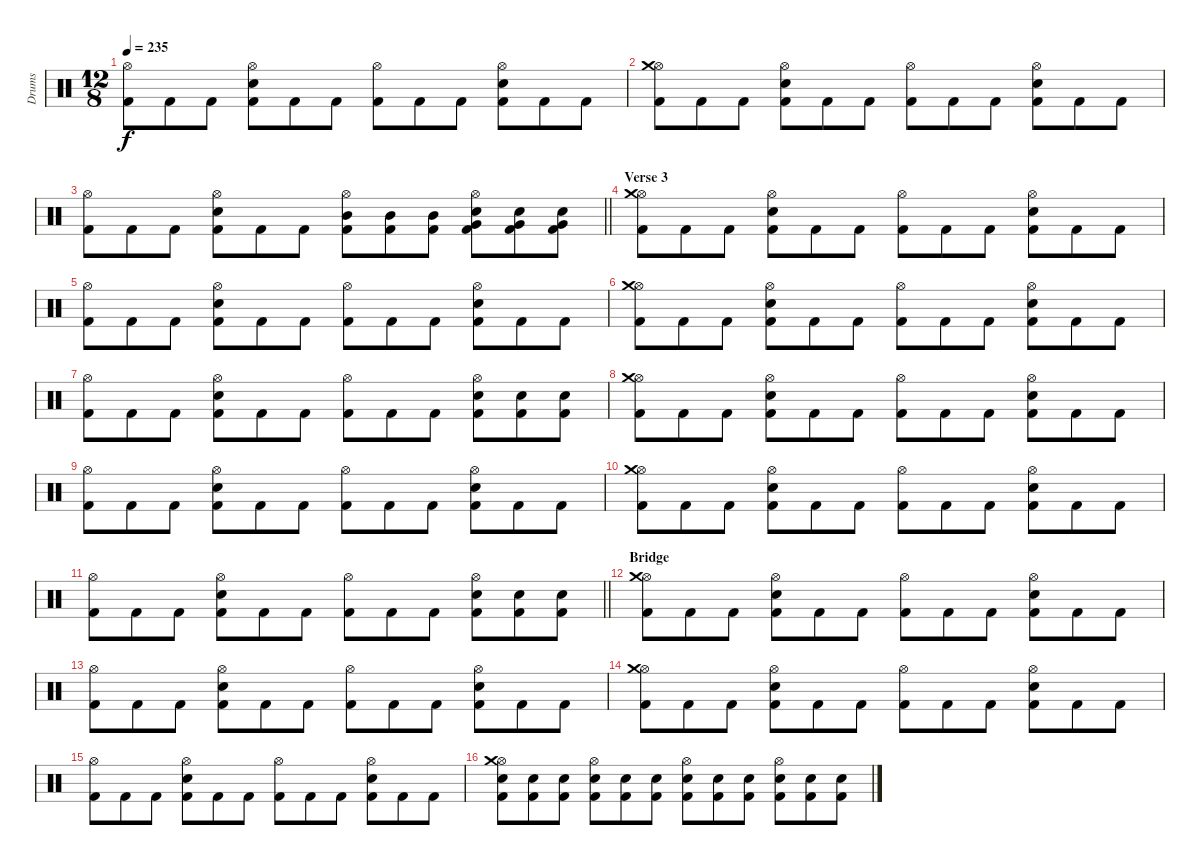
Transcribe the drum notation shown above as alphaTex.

\track ("Drums" "Drums") {instrument percussion}
\staff {score}
\articulation defaults
\ts (12 8)
\tempo 235
\clef neutral
\ks c
("Hi-Hat (open)" "Kick (hit) 2").8{dy f} "Kick (hit) 2".8 "Kick (hit) 2".8 ("Snare (hit) 2" "Kick (hit) 2" "Hi-Hat (open)").8 "Kick (hit) 2".8 "Kick (hit) 2".8 ("Hi-Hat (open)" "Kick (hit) 2").8 "Kick (hit) 2".8 "Kick (hit) 2".8 ("Hi-Hat (open)" "Kick (hit) 2" "Snare (hit) 2").8 "Kick (hit) 2".8 "Kick (hit) 2".8 |
("Hi-Hat (open)" "Kick (hit) 2" "Crash medium (hit)").8 "Kick (hit) 2".8 "Kick (hit) 2".8 ("Kick (hit) 2" "Snare (hit) 2" "Hi-Hat (open)").8 "Kick (hit) 2".8 "Kick (hit) 2".8 ("Kick (hit) 2" "Hi-Hat (open)").8 "Kick (hit) 2".8 "Kick (hit) 2".8 ("Snare (hit) 2" "Kick (hit) 2" "Hi-Hat (open)").8 "Kick (hit) 2".8 "Kick (hit) 2".8 |
\barLineRight lightlight
("Kick (hit) 2" "Hi-Hat (open)").8 "Kick (hit) 2".8 "Kick (hit) 2".8 ("Hi-Hat (open)" "Kick (hit) 2" "Snare (hit) 2").8 "Kick (hit) 2".8 "Kick (hit) 2".8 ("Kick (hit) 2" "Hi-Hat (open)" "Mid Tom (hit)").8 ("Kick (hit) 2" "Mid Tom (hit)").8 ("Kick (hit) 2" "Mid Tom (hit)").8 ("Kick (hit) 2" "Hi-Hat (open)" "Very Low Tom (hit)" "Snare (hit) 2").8 ("Kick (hit) 2" "Very Low Tom (hit)" "Snare (hit) 2").8 ("Kick (hit) 2" "Very Low Tom (hit)" "Snare (hit) 2").8 |
\section ("" "Verse 3")
("Kick (hit) 2" "Hi-Hat (open)" "Crash medium (hit)").8 "Kick (hit) 2".8 "Kick (hit) 2".8 ("Snare (hit) 2" "Hi-Hat (open)" "Kick (hit) 2").8 "Kick (hit) 2".8 "Kick (hit) 2".8 ("Hi-Hat (open)" "Kick (hit) 2").8 "Kick (hit) 2".8 "Kick (hit) 2".8 ("Kick (hit) 2" "Snare (hit) 2" "Hi-Hat (open)").8 "Kick (hit) 2".8 "Kick (hit) 2".8 |
("Hi-Hat (open)" "Kick (hit) 2").8 "Kick (hit) 2".8 "Kick (hit) 2".8 ("Snare (hit) 2" "Kick (hit) 2" "Hi-Hat (open)").8 "Kick (hit) 2".8 "Kick (hit) 2".8 ("Hi-Hat (open)" "Kick (hit) 2").8 "Kick (hit) 2".8 "Kick (hit) 2".8 ("Hi-Hat (open)" "Kick (hit) 2" "Snare (hit) 2").8 "Kick (hit) 2".8 "Kick (hit) 2".8 |
("Hi-Hat (open)" "Kick (hit) 2" "Crash medium (hit)").8 "Kick (hit) 2".8 "Kick (hit) 2".8 ("Kick (hit) 2" "Snare (hit) 2" "Hi-Hat (open)").8 "Kick (hit) 2".8 "Kick (hit) 2".8 ("Kick (hit) 2" "Hi-Hat (open)").8 "Kick (hit) 2".8 "Kick (hit) 2".8 ("Snare (hit) 2" "Kick (hit) 2" "Hi-Hat (open)").8 "Kick (hit) 2".8 "Kick (hit) 2".8 |
("Kick (hit) 2" "Hi-Hat (open)").8 "Kick (hit) 2".8 "Kick (hit) 2".8 ("Hi-Hat (open)" "Kick (hit) 2" "Snare (hit) 2").8 "Kick (hit) 2".8 "Kick (hit) 2".8 ("Kick (hit) 2" "Hi-Hat (open)").8 "Kick (hit) 2".8 "Kick (hit) 2".8 ("Kick (hit) 2" "Hi-Hat (open)" "Snare (hit) 2").8 ("Kick (hit) 2" "Snare (hit) 2").8 ("Kick (hit) 2" "Snare (hit) 2").8 |
("Kick (hit) 2" "Hi-Hat (open)" "Crash medium (hit)").8 "Kick (hit) 2".8 "Kick (hit) 2".8 ("Snare (hit) 2" "Hi-Hat (open)" "Kick (hit) 2").8 "Kick (hit) 2".8 "Kick (hit) 2".8 ("Hi-Hat (open)" "Kick (hit) 2").8 "Kick (hit) 2".8 "Kick (hit) 2".8 ("Kick (hit) 2" "Snare (hit) 2" "Hi-Hat (open)").8 "Kick (hit) 2".8 "Kick (hit) 2".8 |
("Hi-Hat (open)" "Kick (hit) 2").8 "Kick (hit) 2".8 "Kick (hit) 2".8 ("Snare (hit) 2" "Kick (hit) 2" "Hi-Hat (open)").8 "Kick (hit) 2".8 "Kick (hit) 2".8 ("Hi-Hat (open)" "Kick (hit) 2").8 "Kick (hit) 2".8 "Kick (hit) 2".8 ("Hi-Hat (open)" "Kick (hit) 2" "Snare (hit) 2").8 "Kick (hit) 2".8 "Kick (hit) 2".8 |
("Hi-Hat (open)" "Kick (hit) 2" "Crash medium (hit)").8 "Kick (hit) 2".8 "Kick (hit) 2".8 ("Kick (hit) 2" "Snare (hit) 2" "Hi-Hat (open)").8 "Kick (hit) 2".8 "Kick (hit) 2".8 ("Kick (hit) 2" "Hi-Hat (open)").8 "Kick (hit) 2".8 "Kick (hit) 2".8 ("Snare (hit) 2" "Kick (hit) 2" "Hi-Hat (open)").8 "Kick (hit) 2".8 "Kick (hit) 2".8 |
\barLineRight lightlight
("Kick (hit) 2" "Hi-Hat (open)").8 "Kick (hit) 2".8 "Kick (hit) 2".8 ("Hi-Hat (open)" "Kick (hit) 2" "Snare (hit) 2").8 "Kick (hit) 2".8 "Kick (hit) 2".8 ("Kick (hit) 2" "Hi-Hat (open)").8 "Kick (hit) 2".8 "Kick (hit) 2".8 ("Kick (hit) 2" "Hi-Hat (open)" "Snare (hit) 2").8 ("Kick (hit) 2" "Snare (hit) 2").8 ("Kick (hit) 2" "Snare (hit) 2").8 |
\section ("" "Bridge")
("Kick (hit) 2" "Hi-Hat (open)" "Crash medium (hit)").8 "Kick (hit) 2".8 "Kick (hit) 2".8 ("Snare (hit) 2" "Hi-Hat (open)" "Kick (hit) 2").8 "Kick (hit) 2".8 "Kick (hit) 2".8 ("Hi-Hat (open)" "Kick (hit) 2").8 "Kick (hit) 2".8 "Kick (hit) 2".8 ("Kick (hit) 2" "Snare (hit) 2" "Hi-Hat (open)").8 "Kick (hit) 2".8 "Kick (hit) 2".8 |
("Hi-Hat (open)" "Kick (hit) 2").8 "Kick (hit) 2".8 "Kick (hit) 2".8 ("Snare (hit) 2" "Kick (hit) 2" "Hi-Hat (open)").8 "Kick (hit) 2".8 "Kick (hit) 2".8 ("Hi-Hat (open)" "Kick (hit) 2").8 "Kick (hit) 2".8 "Kick (hit) 2".8 ("Hi-Hat (open)" "Kick (hit) 2" "Snare (hit) 2").8 "Kick (hit) 2".8 "Kick (hit) 2".8 |
("Hi-Hat (open)" "Kick (hit) 2" "Crash medium (hit)").8 "Kick (hit) 2".8 "Kick (hit) 2".8 ("Kick (hit) 2" "Snare (hit) 2" "Hi-Hat (open)").8 "Kick (hit) 2".8 "Kick (hit) 2".8 ("Kick (hit) 2" "Hi-Hat (open)").8 "Kick (hit) 2".8 "Kick (hit) 2".8 ("Snare (hit) 2" "Kick (hit) 2" "Hi-Hat (open)").8 "Kick (hit) 2".8 "Kick (hit) 2".8 |
("Kick (hit) 2" "Hi-Hat (open)").8 "Kick (hit) 2".8 "Kick (hit) 2".8 ("Hi-Hat (open)" "Kick (hit) 2" "Snare (hit) 2").8 "Kick (hit) 2".8 "Kick (hit) 2".8 ("Kick (hit) 2" "Hi-Hat (open)").8 "Kick (hit) 2".8 "Kick (hit) 2".8 ("Kick (hit) 2" "Hi-Hat (open)" "Snare (hit) 2").8 "Kick (hit) 2".8 "Kick (hit) 2".8 |
("Kick (hit) 2" "Hi-Hat (open)" "Crash medium (hit)" "Snare (hit) 2").8 ("Kick (hit) 2" "Snare (hit) 2").8 ("Kick (hit) 2" "Snare (hit) 2").8 ("Hi-Hat (open)" "Kick (hit) 2" "Snare (hit) 2").8 ("Kick (hit) 2" "Snare (hit) 2").8 ("Kick (hit) 2" "Snare (hit) 2").8 ("Hi-Hat (open)" "Kick (hit) 2" "Snare (hit) 2").8 ("Kick (hit) 2" "Snare (hit) 2").8 ("Kick (hit) 2" "Snare (hit) 2").8 ("Kick (hit) 2" "Hi-Hat (open)" "Snare (hit) 2").8 ("Kick (hit) 2" "Snare (hit) 2").8 ("Kick (hit) 2" "Snare (hit) 2").8
